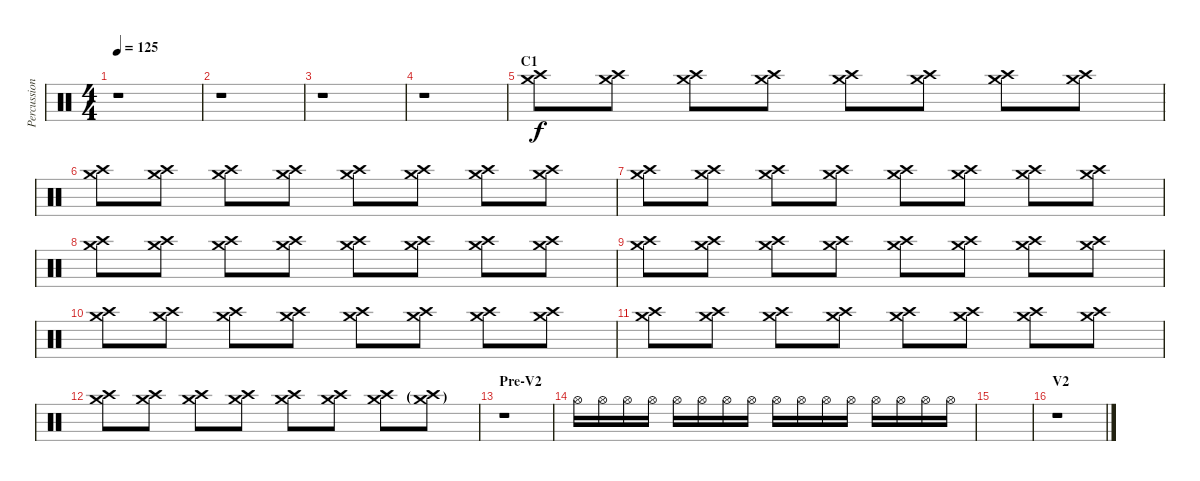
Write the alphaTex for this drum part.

\track ("Percussion" "Percussion") {instrument percussion}
\staff {score}
\articulation defaults
\ts (4 4)
\tempo 125
\clef neutral
\ks c
r.1{dy f} |
r.1 |
r.1 |
r.1 |
\section ("" "C1")
("Crash high (hit)" "Crash medium (hit)").8 ("Crash high (hit)" "Crash medium (hit)").8 ("Crash high (hit)" "Crash medium (hit)").8 ("Crash high (hit)" "Crash medium (hit)").8 ("Crash high (hit)" "Crash medium (hit)").8 ("Crash high (hit)" "Crash medium (hit)").8 ("Crash high (hit)" "Crash medium (hit)").8 ("Crash high (hit)" "Crash medium (hit)").8 |
("Crash high (hit)" "Crash medium (hit)").8 ("Crash high (hit)" "Crash medium (hit)").8 ("Crash high (hit)" "Crash medium (hit)").8 ("Crash high (hit)" "Crash medium (hit)").8 ("Crash high (hit)" "Crash medium (hit)").8 ("Crash high (hit)" "Crash medium (hit)").8 ("Crash high (hit)" "Crash medium (hit)").8 ("Crash high (hit)" "Crash medium (hit)").8 |
("Crash high (hit)" "Crash medium (hit)").8 ("Crash high (hit)" "Crash medium (hit)").8 ("Crash high (hit)" "Crash medium (hit)").8 ("Crash high (hit)" "Crash medium (hit)").8 ("Crash high (hit)" "Crash medium (hit)").8 ("Crash high (hit)" "Crash medium (hit)").8 ("Crash high (hit)" "Crash medium (hit)").8 ("Crash high (hit)" "Crash medium (hit)").8 |
("Crash high (hit)" "Crash medium (hit)").8 ("Crash high (hit)" "Crash medium (hit)").8 ("Crash high (hit)" "Crash medium (hit)").8 ("Crash high (hit)" "Crash medium (hit)").8 ("Crash high (hit)" "Crash medium (hit)").8 ("Crash high (hit)" "Crash medium (hit)").8 ("Crash high (hit)" "Crash medium (hit)").8 ("Crash high (hit)" "Crash medium (hit)").8 |
("Crash high (hit)" "Crash medium (hit)").8 ("Crash high (hit)" "Crash medium (hit)").8 ("Crash high (hit)" "Crash medium (hit)").8 ("Crash high (hit)" "Crash medium (hit)").8 ("Crash high (hit)" "Crash medium (hit)").8 ("Crash high (hit)" "Crash medium (hit)").8 ("Crash high (hit)" "Crash medium (hit)").8 ("Crash high (hit)" "Crash medium (hit)").8 |
("Crash high (hit)" "Crash medium (hit)").8 ("Crash high (hit)" "Crash medium (hit)").8 ("Crash high (hit)" "Crash medium (hit)").8 ("Crash high (hit)" "Crash medium (hit)").8 ("Crash high (hit)" "Crash medium (hit)").8 ("Crash high (hit)" "Crash medium (hit)").8 ("Crash high (hit)" "Crash medium (hit)").8 ("Crash high (hit)" "Crash medium (hit)").8 |
("Crash high (hit)" "Crash medium (hit)").8 ("Crash high (hit)" "Crash medium (hit)").8 ("Crash high (hit)" "Crash medium (hit)").8 ("Crash high (hit)" "Crash medium (hit)").8 ("Crash high (hit)" "Crash medium (hit)").8 ("Crash high (hit)" "Crash medium (hit)").8 ("Crash high (hit)" "Crash medium (hit)").8 ("Crash high (hit)" "Crash medium (hit)").8 |
("Crash high (hit)" "Crash medium (hit)").8 ("Crash high (hit)" "Crash medium (hit)").8 ("Crash high (hit)" "Crash medium (hit)").8 ("Crash high (hit)" "Crash medium (hit)").8 ("Crash high (hit)" "Crash medium (hit)").8 ("Crash high (hit)" "Crash medium (hit)").8 ("Crash high (hit)" "Crash medium (hit)").8 ("Crash high (hit)"{g} "Crash medium (hit)"{g}).8 |
\section ("" "Pre-V2")
r.1 |
"Hi-Hat (open)".16 "Hi-Hat (open)".16 "Hi-Hat (open)".16 "Hi-Hat (open)".16 "Hi-Hat (open)".16 "Hi-Hat (open)".16 "Hi-Hat (open)".16 "Hi-Hat (open)".16 "Hi-Hat (open)".16 "Hi-Hat (open)".16 "Hi-Hat (open)".16 "Hi-Hat (open)".16 "Hi-Hat (open)".16 "Hi-Hat (open)".16 "Hi-Hat (open)".16 "Hi-Hat (open)".16 |
|
\section ("" "V2")
r.1
